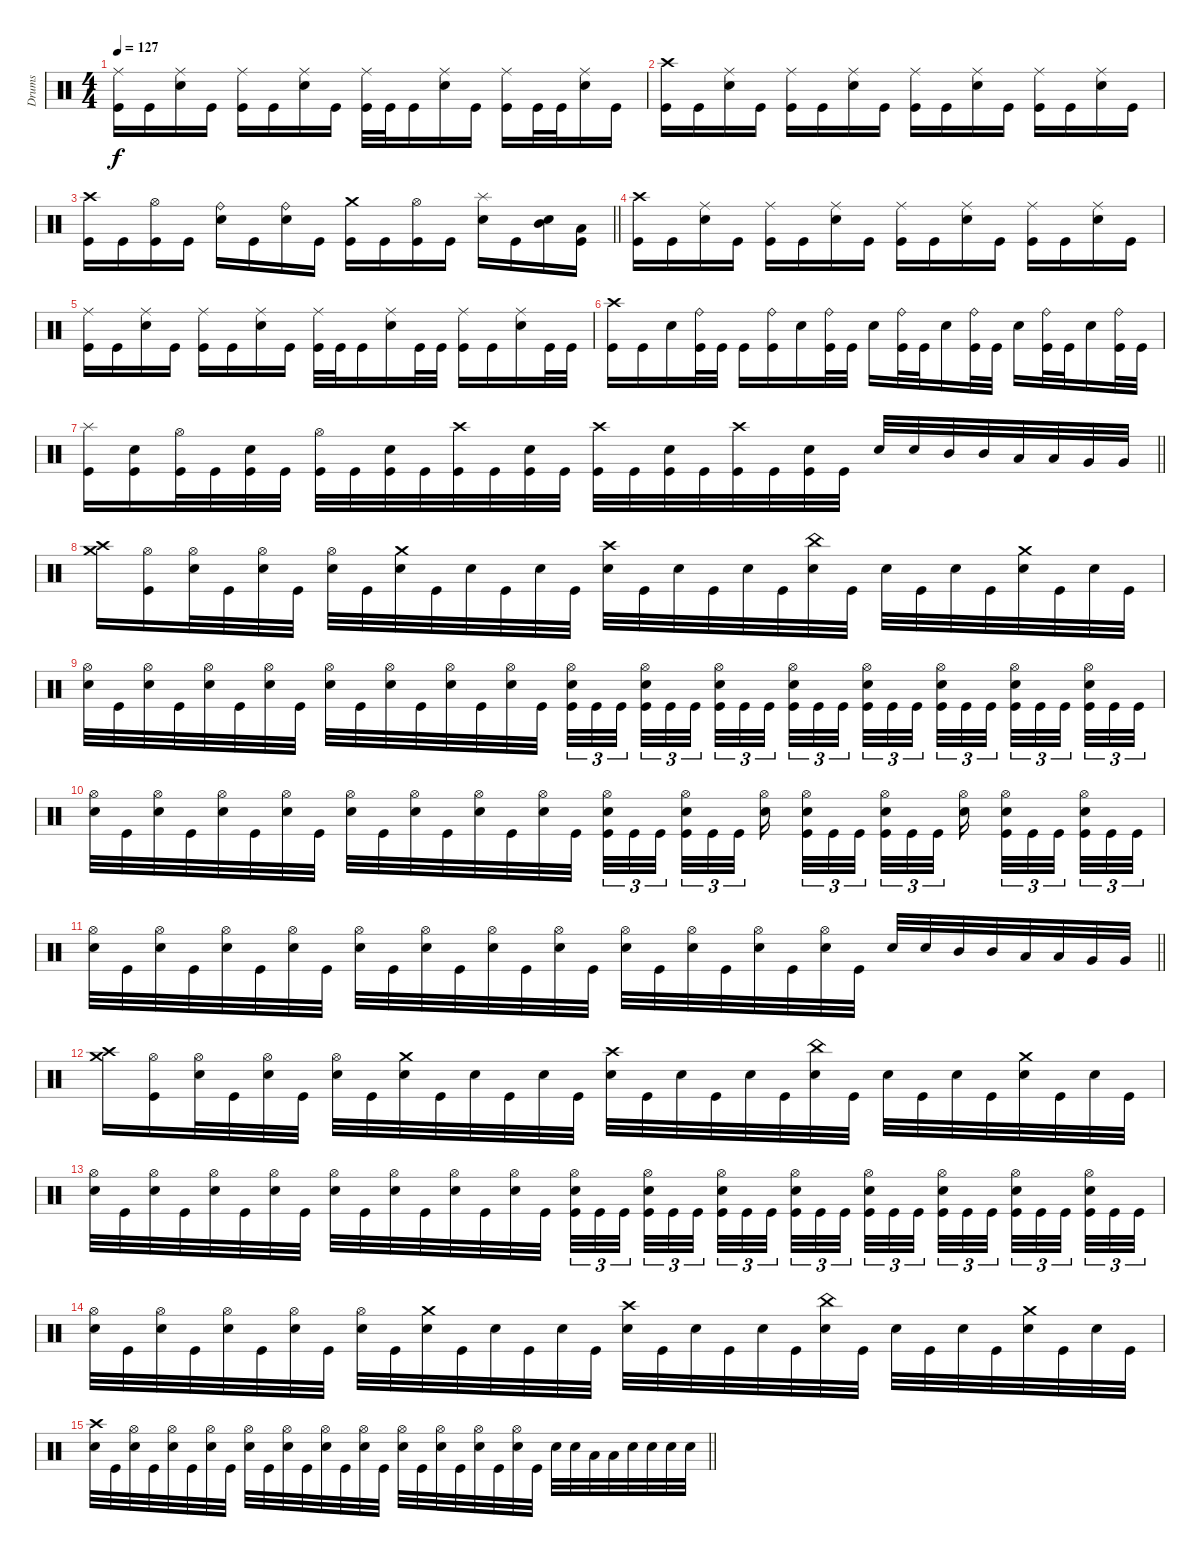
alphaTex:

\track ("Drums" "Drums") {instrument percussion}
\staff
\articulation defaults
\ts (4 4)
\tempo 127
\clef neutral
\ks c
("Ride (middle)" "Kick (hit)").16{dy f} "Kick (hit)".16 ("Ride (middle)" "Electric Snare (hit)").16 "Kick (hit)".16 ("Ride (middle)" "Kick (hit)").16 "Kick (hit)".16 ("Ride (middle)" "Electric Snare (hit)").16 "Kick (hit)".16 ("Ride (middle)" "Kick (hit)").32 "Kick (hit)".32 "Kick (hit)".16 ("Ride (middle)" "Electric Snare (hit)").16 "Kick (hit)".16 ("Ride (middle)" "Kick (hit)").16 "Kick (hit)".32 "Kick (hit)".32 ("Ride (middle)" "Electric Snare (hit)").16 "Kick (hit)".16 |
("Crash high (hit)" "Kick (hit)").16 "Kick (hit)".16 ("Ride (middle)" "Electric Snare (hit)").16 "Kick (hit)".16 ("Ride (middle)" "Kick (hit)").16 "Kick (hit)".16 ("Ride (middle)" "Electric Snare (hit)").16 "Kick (hit)".16 ("Ride (middle)" "Kick (hit)").16 "Kick (hit)".16 ("Ride (middle)" "Electric Snare (hit)").16 "Kick (hit)".16 ("Ride (middle)" "Kick (hit)").16 "Kick (hit)".16 ("Ride (middle)" "Electric Snare (hit)").16 "Kick (hit)".16 |
\barLineRight lightlight
("Crash high (hit)" "Kick (hit)").16 "Kick (hit)".16 ("Hi-Hat (open)" "Kick (hit)").16 "Kick (hit)".16 ("Ride (bell)" "Electric Snare (hit)").16 "Kick (hit)".16 ("Ride (bell)" "Electric Snare (hit)").16 "Kick (hit)".16 ("Crash medium (hit)" "Kick (hit)").16 "Kick (hit)".16 ("Hi-Hat (open)" "Kick (hit)").16 "Kick (hit)".16 ("Splash (hit)" "Electric Snare (hit)").16 "Kick (hit)".16 ("Mid Tom (hit)" "Electric Snare (hit)").16 ("Low Tom (hit)" "Kick (hit)").16 |
("Crash high (hit)" "Kick (hit)").16 "Kick (hit)".16 ("Ride (middle)" "Electric Snare (hit)").16 "Kick (hit)".16 ("Ride (middle)" "Kick (hit)").16 "Kick (hit)".16 ("Ride (middle)" "Electric Snare (hit)").16 "Kick (hit)".16 ("Ride (middle)" "Kick (hit)").16 "Kick (hit)".16 ("Ride (middle)" "Electric Snare (hit)").16 "Kick (hit)".16 ("Ride (middle)" "Kick (hit)").16 "Kick (hit)".16 ("Ride (middle)" "Electric Snare (hit)").16 "Kick (hit)".16 |
("Ride (middle)" "Kick (hit)").16 "Kick (hit)".16 ("Ride (middle)" "Electric Snare (hit)").16 "Kick (hit)".16 ("Ride (middle)" "Kick (hit)").16 "Kick (hit)".16 ("Ride (middle)" "Electric Snare (hit)").16 "Kick (hit)".16 ("Ride (middle)" "Kick (hit)").32 "Kick (hit)".32 "Kick (hit)".16 ("Ride (middle)" "Electric Snare (hit)").16 "Kick (hit)".32 "Kick (hit)".32 ("Ride (middle)" "Kick (hit)").16 "Kick (hit)".16 ("Ride (middle)" "Electric Snare (hit)").16 "Kick (hit)".32 "Kick (hit)".32 |
("Crash high (hit)" "Kick (hit)").16 "Kick (hit)".16 "Electric Snare (hit)".16 ("Ride (bell)" "Kick (hit)").32 "Kick (hit)".32 "Kick (hit)".16 ("Ride (bell)" "Kick (hit)").16 "Electric Snare (hit)".16 ("Ride (bell)" "Kick (hit)").32 "Kick (hit)".32 "Electric Snare (hit)".16 ("Ride (bell)" "Kick (hit)").32 "Kick (hit)".32 "Electric Snare (hit)".16 ("Ride (bell)" "Kick (hit)").32 "Kick (hit)".32 "Electric Snare (hit)".16 ("Ride (bell)" "Kick (hit)").32 "Kick (hit)".32 "Electric Snare (hit)".16 ("Ride (bell)" "Kick (hit)").32 "Kick (hit)".32 |
\barLineRight lightlight
("Splash (hit)" "Kick (hit)").16 ("Electric Snare (hit)" "Kick (hit)").16 ("Hi-Hat (open)" "Kick (hit)").32 "Kick (hit)".32 ("Electric Snare (hit)" "Kick (hit)").32 "Kick (hit)".32 ("Hi-Hat (open)" "Kick (hit)").32 "Kick (hit)".32 ("Electric Snare (hit)" "Kick (hit)").32 "Kick (hit)".32 ("Crash high (hit)" "Kick (hit)").32 "Kick (hit)".32 ("Electric Snare (hit)" "Kick (hit)").32 "Kick (hit)".32 ("Crash high (hit)" "Kick (hit)").32 "Kick (hit)".32 ("Electric Snare (hit)" "Kick (hit)").32 "Kick (hit)".32 ("Crash high (hit)" "Kick (hit)").32 "Kick (hit)".32 ("Electric Snare (hit)" "Kick (hit)").32 "Kick (hit)".32 "Electric Snare (hit)".32 "Electric Snare (hit)".32 "Mid Tom (hit)".32 "Mid Tom (hit)".32 "Low Tom (hit)".32 "Low Tom (hit)".32 "Very Low Tom (hit)".32 "Very Low Tom (hit)".32 |
("Crash high (hit)" "Crash medium (hit)").16 ("Hi-Hat (open)" "Kick (hit)").16 ("Hi-Hat (open)" "Electric Snare (hit)").32 "Kick (hit)".32 ("Hi-Hat (open)" "Electric Snare (hit)").32 "Kick (hit)".32 ("Hi-Hat (open)" "Electric Snare (hit)").32 "Kick (hit)".32 ("Crash medium (hit)" "Electric Snare (hit)").32 "Kick (hit)".32 "Electric Snare (hit)".32 "Kick (hit)".32 "Electric Snare (hit)".32 "Kick (hit)".32 ("Crash high (hit)" "Electric Snare (hit)").32 "Kick (hit)".32 "Electric Snare (hit)".32 "Kick (hit)".32 "Electric Snare (hit)".32 "Kick (hit)".32 ("China (hit)" "Electric Snare (hit)").32 "Kick (hit)".32 "Electric Snare (hit)".32 "Kick (hit)".32 "Electric Snare (hit)".32 "Kick (hit)".32 ("Crash medium (hit)" "Electric Snare (hit)").32 "Kick (hit)".32 "Electric Snare (hit)".32 "Kick (hit)".32 |
("Hi-Hat (open)" "Electric Snare (hit)").32 "Kick (hit)".32 ("Hi-Hat (open)" "Electric Snare (hit)").32 "Kick (hit)".32 ("Hi-Hat (open)" "Electric Snare (hit)").32 "Kick (hit)".32 ("Hi-Hat (open)" "Electric Snare (hit)").32 "Kick (hit)".32 ("Hi-Hat (open)" "Electric Snare (hit)").32 "Kick (hit)".32 ("Hi-Hat (open)" "Electric Snare (hit)").32 "Kick (hit)".32 ("Hi-Hat (open)" "Electric Snare (hit)").32 "Kick (hit)".32 ("Hi-Hat (open)" "Electric Snare (hit)").32 "Kick (hit)".32 ("Hi-Hat (open)" "Electric Snare (hit)" "Kick (hit)").32{tu (3 2)} "Kick (hit)".32{tu (3 2)} "Kick (hit)".32{tu (3 2) beam splitsecondary} ("Hi-Hat (open)" "Electric Snare (hit)" "Kick (hit)").32{tu (3 2)} "Kick (hit)".32{tu (3 2)} "Kick (hit)".32{tu (3 2) beam splitsecondary} ("Hi-Hat (open)" "Electric Snare (hit)" "Kick (hit)").32{tu (3 2)} "Kick (hit)".32{tu (3 2)} "Kick (hit)".32{tu (3 2) beam splitsecondary} ("Hi-Hat (open)" "Electric Snare (hit)" "Kick (hit)").32{tu (3 2)} "Kick (hit)".32{tu (3 2)} "Kick (hit)".32{tu (3 2)} ("Hi-Hat (open)" "Electric Snare (hit)" "Kick (hit)").32{tu (3 2)} "Kick (hit)".32{tu (3 2)} "Kick (hit)".32{tu (3 2) beam splitsecondary} ("Hi-Hat (open)" "Electric Snare (hit)" "Kick (hit)").32{tu (3 2)} "Kick (hit)".32{tu (3 2)} "Kick (hit)".32{tu (3 2) beam splitsecondary} ("Hi-Hat (open)" "Electric Snare (hit)" "Kick (hit)").32{tu (3 2)} "Kick (hit)".32{tu (3 2)} "Kick (hit)".32{tu (3 2) beam splitsecondary} ("Hi-Hat (open)" "Electric Snare (hit)" "Kick (hit)").32{tu (3 2)} "Kick (hit)".32{tu (3 2)} "Kick (hit)".32{tu (3 2)} |
("Hi-Hat (open)" "Electric Snare (hit)").32 "Kick (hit)".32 ("Hi-Hat (open)" "Electric Snare (hit)").32 "Kick (hit)".32 ("Hi-Hat (open)" "Electric Snare (hit)").32 "Kick (hit)".32 ("Hi-Hat (open)" "Electric Snare (hit)").32 "Kick (hit)".32 ("Hi-Hat (open)" "Electric Snare (hit)").32 "Kick (hit)".32 ("Hi-Hat (open)" "Electric Snare (hit)").32 "Kick (hit)".32 ("Hi-Hat (open)" "Electric Snare (hit)").32 "Kick (hit)".32 ("Hi-Hat (open)" "Electric Snare (hit)").32 "Kick (hit)".32 ("Hi-Hat (open)" "Electric Snare (hit)" "Kick (hit)").32{tu (3 2)} "Kick (hit)".32{tu (3 2)} "Kick (hit)".32{tu (3 2) beam splitsecondary} ("Hi-Hat (open)" "Electric Snare (hit)" "Kick (hit)").32{tu (3 2)} "Kick (hit)".32{tu (3 2)} "Kick (hit)".32{tu (3 2) beam splitsecondary} ("Hi-Hat (open)" "Electric Snare (hit)").16{beam splitsecondary} ("Hi-Hat (open)" "Electric Snare (hit)" "Kick (hit)").32{tu (3 2)} "Kick (hit)".32{tu (3 2)} "Kick (hit)".32{tu (3 2)} ("Hi-Hat (open)" "Electric Snare (hit)" "Kick (hit)").32{tu (3 2)} "Kick (hit)".32{tu (3 2)} "Kick (hit)".32{tu (3 2) beam splitsecondary} ("Hi-Hat (open)" "Electric Snare (hit)").16{beam splitsecondary} ("Hi-Hat (open)" "Electric Snare (hit)" "Kick (hit)").32{tu (3 2)} "Kick (hit)".32{tu (3 2)} "Kick (hit)".32{tu (3 2) beam splitsecondary} ("Hi-Hat (open)" "Electric Snare (hit)" "Kick (hit)").32{tu (3 2)} "Kick (hit)".32{tu (3 2)} "Kick (hit)".32{tu (3 2)} |
\barLineRight lightlight
("Hi-Hat (open)" "Electric Snare (hit)").32 "Kick (hit)".32 ("Hi-Hat (open)" "Electric Snare (hit)").32 "Kick (hit)".32 ("Hi-Hat (open)" "Electric Snare (hit)").32 "Kick (hit)".32 ("Hi-Hat (open)" "Electric Snare (hit)").32 "Kick (hit)".32 ("Hi-Hat (open)" "Electric Snare (hit)").32 "Kick (hit)".32 ("Hi-Hat (open)" "Electric Snare (hit)").32 "Kick (hit)".32 ("Hi-Hat (open)" "Electric Snare (hit)").32 "Kick (hit)".32 ("Hi-Hat (open)" "Electric Snare (hit)").32 "Kick (hit)".32 ("Hi-Hat (open)" "Electric Snare (hit)").32 "Kick (hit)".32 ("Hi-Hat (open)" "Electric Snare (hit)").32 "Kick (hit)".32 ("Hi-Hat (open)" "Electric Snare (hit)").32 "Kick (hit)".32 ("Hi-Hat (open)" "Electric Snare (hit)").32 "Kick (hit)".32 "Electric Snare (hit)".32 "Electric Snare (hit)".32 "Mid Tom (hit)".32 "Mid Tom (hit)".32 "Low Tom (hit)".32 "Low Tom (hit)".32 "Very Low Tom (hit)".32 "Very Low Tom (hit)".32 |
("Crash high (hit)" "Crash medium (hit)").16 ("Hi-Hat (open)" "Kick (hit)").16 ("Hi-Hat (open)" "Electric Snare (hit)").32 "Kick (hit)".32 ("Hi-Hat (open)" "Electric Snare (hit)").32 "Kick (hit)".32 ("Hi-Hat (open)" "Electric Snare (hit)").32 "Kick (hit)".32 ("Crash medium (hit)" "Electric Snare (hit)").32 "Kick (hit)".32 "Electric Snare (hit)".32 "Kick (hit)".32 "Electric Snare (hit)".32 "Kick (hit)".32 ("Crash high (hit)" "Electric Snare (hit)").32 "Kick (hit)".32 "Electric Snare (hit)".32 "Kick (hit)".32 "Electric Snare (hit)".32 "Kick (hit)".32 ("China (hit)" "Electric Snare (hit)").32 "Kick (hit)".32 "Electric Snare (hit)".32 "Kick (hit)".32 "Electric Snare (hit)".32 "Kick (hit)".32 ("Crash medium (hit)" "Electric Snare (hit)").32 "Kick (hit)".32 "Electric Snare (hit)".32 "Kick (hit)".32 |
("Hi-Hat (open)" "Electric Snare (hit)").32 "Kick (hit)".32 ("Hi-Hat (open)" "Electric Snare (hit)").32 "Kick (hit)".32 ("Hi-Hat (open)" "Electric Snare (hit)").32 "Kick (hit)".32 ("Hi-Hat (open)" "Electric Snare (hit)").32 "Kick (hit)".32 ("Hi-Hat (open)" "Electric Snare (hit)").32 "Kick (hit)".32 ("Hi-Hat (open)" "Electric Snare (hit)").32 "Kick (hit)".32 ("Hi-Hat (open)" "Electric Snare (hit)").32 "Kick (hit)".32 ("Hi-Hat (open)" "Electric Snare (hit)").32 "Kick (hit)".32 ("Hi-Hat (open)" "Electric Snare (hit)" "Kick (hit)").32{tu (3 2)} "Kick (hit)".32{tu (3 2)} "Kick (hit)".32{tu (3 2) beam splitsecondary} ("Hi-Hat (open)" "Electric Snare (hit)" "Kick (hit)").32{tu (3 2)} "Kick (hit)".32{tu (3 2)} "Kick (hit)".32{tu (3 2) beam splitsecondary} ("Hi-Hat (open)" "Electric Snare (hit)" "Kick (hit)").32{tu (3 2)} "Kick (hit)".32{tu (3 2)} "Kick (hit)".32{tu (3 2) beam splitsecondary} ("Hi-Hat (open)" "Electric Snare (hit)" "Kick (hit)").32{tu (3 2)} "Kick (hit)".32{tu (3 2)} "Kick (hit)".32{tu (3 2)} ("Hi-Hat (open)" "Electric Snare (hit)" "Kick (hit)").32{tu (3 2)} "Kick (hit)".32{tu (3 2)} "Kick (hit)".32{tu (3 2) beam splitsecondary} ("Hi-Hat (open)" "Electric Snare (hit)" "Kick (hit)").32{tu (3 2)} "Kick (hit)".32{tu (3 2)} "Kick (hit)".32{tu (3 2) beam splitsecondary} ("Hi-Hat (open)" "Electric Snare (hit)" "Kick (hit)").32{tu (3 2)} "Kick (hit)".32{tu (3 2)} "Kick (hit)".32{tu (3 2) beam splitsecondary} ("Hi-Hat (open)" "Electric Snare (hit)" "Kick (hit)").32{tu (3 2)} "Kick (hit)".32{tu (3 2)} "Kick (hit)".32{tu (3 2)} |
("Hi-Hat (open)" "Electric Snare (hit)").32 "Kick (hit)".32 ("Hi-Hat (open)" "Electric Snare (hit)").32 "Kick (hit)".32 ("Hi-Hat (open)" "Electric Snare (hit)").32 "Kick (hit)".32 ("Hi-Hat (open)" "Electric Snare (hit)").32 "Kick (hit)".32 ("Hi-Hat (open)" "Electric Snare (hit)").32 "Kick (hit)".32 ("Crash medium (hit)" "Electric Snare (hit)").32 "Kick (hit)".32 "Electric Snare (hit)".32 "Kick (hit)".32 "Electric Snare (hit)".32 "Kick (hit)".32 ("Crash high (hit)" "Electric Snare (hit)").32 "Kick (hit)".32 "Electric Snare (hit)".32 "Kick (hit)".32 "Electric Snare (hit)".32 "Kick (hit)".32 ("China (hit)" "Electric Snare (hit)").32 "Kick (hit)".32 "Electric Snare (hit)".32 "Kick (hit)".32 "Electric Snare (hit)".32 "Kick (hit)".32 ("Crash medium (hit)" "Electric Snare (hit)").32 "Kick (hit)".32 "Electric Snare (hit)".32 "Kick (hit)".32 |
\barLineRight lightlight
("Crash high (hit)" "Electric Snare (hit)").32 "Kick (hit)".32 ("Hi-Hat (open)" "Electric Snare (hit)").32 "Kick (hit)".32 ("Hi-Hat (open)" "Electric Snare (hit)").32 "Kick (hit)".32 ("Hi-Hat (open)" "Electric Snare (hit)").32 "Kick (hit)".32 ("Hi-Hat (open)" "Electric Snare (hit)").32 "Kick (hit)".32 ("Hi-Hat (open)" "Electric Snare (hit)").32 "Kick (hit)".32 ("Hi-Hat (open)" "Electric Snare (hit)").32 "Kick (hit)".32 ("Hi-Hat (open)" "Electric Snare (hit)").32 "Kick (hit)".32 ("Hi-Hat (open)" "Electric Snare (hit)").32 "Kick (hit)".32 ("Hi-Hat (open)" "Electric Snare (hit)").32 "Kick (hit)".32 ("Hi-Hat (open)" "Electric Snare (hit)").32 "Kick (hit)".32 ("Hi-Hat (open)" "Electric Snare (hit)").32 "Kick (hit)".32 "Electric Snare (hit)".32 "Electric Snare (hit)".32 "Low Tom (hit)".32 "Low Tom (hit)".32 "Electric Snare (hit)".32 "Electric Snare (hit)".32 "Electric Snare (hit)".32 "Electric Snare (hit)".32
